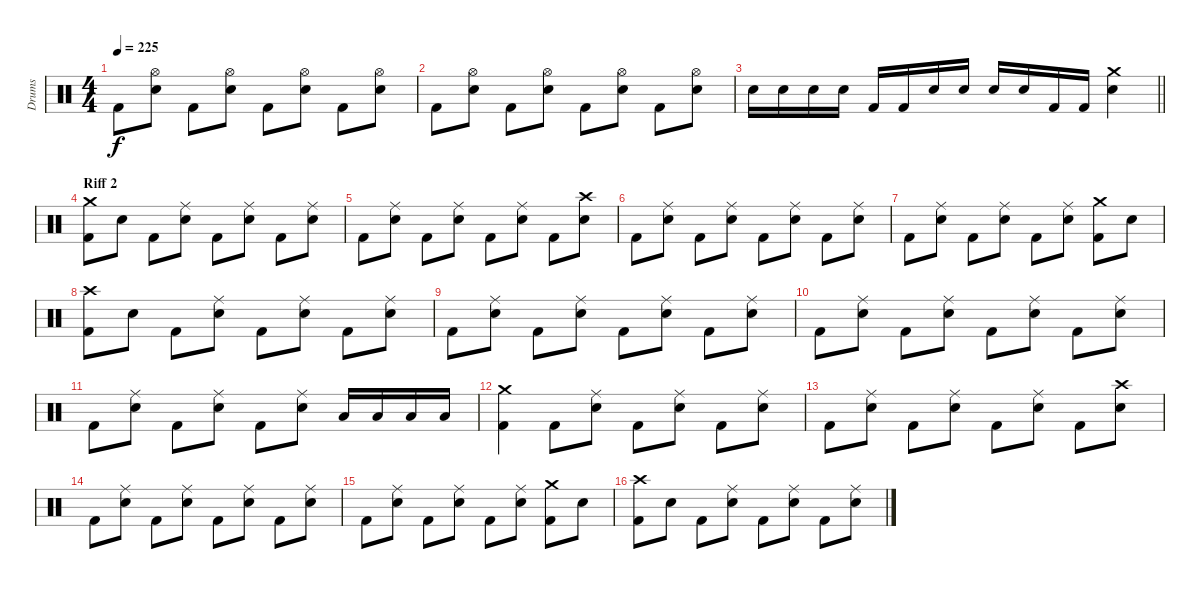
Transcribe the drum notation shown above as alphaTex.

\track ("Drums" "Drums") {instrument percussion}
\staff {score}
\articulation defaults
\ts (4 4)
\tempo 225
\clef neutral
\ks c "Kick (hit) 2".8{dy f}
("Hi-Hat (open)" "Electric Snare (hit)").8 "Kick (hit) 2".8 ("Hi-Hat (open)" "Electric Snare (hit)").8 "Kick (hit) 2".8 ("Hi-Hat (open)" "Electric Snare (hit)").8 "Kick (hit) 2".8 ("Hi-Hat (open)" "Electric Snare (hit)").8 |
"Kick (hit) 2".8 ("Hi-Hat (open)" "Electric Snare (hit)").8 "Kick (hit) 2".8 ("Hi-Hat (open)" "Electric Snare (hit)").8 "Kick (hit) 2".8 ("Hi-Hat (open)" "Electric Snare (hit)").8 "Kick (hit) 2".8 ("Hi-Hat (open)" "Electric Snare (hit)").8 |
\barLineRight lightlight "Electric Snare (hit)".16 "Electric Snare (hit)".16 "Electric Snare (hit)".16 "Electric Snare (hit)".16 "Kick (hit) 2".16 "Kick (hit) 2".16 "Electric Snare (hit)".16 "Electric Snare (hit)".16 "Electric Snare (hit)".16 "Electric Snare (hit)".16 "Kick (hit) 2".16 "Kick (hit) 2".16
("Electric Snare (hit)" "Crash medium (hit)").4 |
\section ("" "Riff 2")
("Crash medium (hit)" "Kick (hit) 2").8 "Electric Snare (hit)".8 "Kick (hit) 2".8 ("Ride (middle)" "Electric Snare (hit)").8 "Kick (hit) 2".8 ("Ride (middle)" "Electric Snare (hit)").8 "Kick (hit) 2".8 ("Ride (middle)" "Electric Snare (hit)").8 |
"Kick (hit) 2".8 ("Ride (middle)" "Electric Snare (hit)").8 "Kick (hit) 2".8 ("Ride (middle)" "Electric Snare (hit)").8 "Kick (hit) 2".8 ("Ride (middle)" "Electric Snare (hit)").8 "Kick (hit) 2".8 ("Crash high (hit)" "Electric Snare (hit)").8 |
"Kick (hit) 2".8 ("Ride (middle)" "Electric Snare (hit)").8 "Kick (hit) 2".8 ("Ride (middle)" "Electric Snare (hit)").8 "Kick (hit) 2".8 ("Ride (middle)" "Electric Snare (hit)").8 "Kick (hit) 2".8 ("Ride (middle)" "Electric Snare (hit)").8 |
"Kick (hit) 2".8 ("Ride (middle)" "Electric Snare (hit)").8 "Kick (hit) 2".8 ("Ride (middle)" "Electric Snare (hit)").8 "Kick (hit) 2".8 ("Ride (middle)" "Electric Snare (hit)").8 ("Crash medium (hit)" "Kick (hit) 2").8 "Electric Snare (hit)".8 |
("Crash high (hit)" "Kick (hit) 2").8 "Electric Snare (hit)".8 "Kick (hit) 2".8 ("Ride (middle)" "Electric Snare (hit)").8 "Kick (hit) 2".8 ("Ride (middle)" "Electric Snare (hit)").8 "Kick (hit) 2".8 ("Ride (middle)" "Electric Snare (hit)").8 |
"Kick (hit) 2".8 ("Ride (middle)" "Electric Snare (hit)").8 "Kick (hit) 2".8 ("Ride (middle)" "Electric Snare (hit)").8 "Kick (hit) 2".8 ("Ride (middle)" "Electric Snare (hit)").8 "Kick (hit) 2".8 ("Ride (middle)" "Electric Snare (hit)").8 |
"Kick (hit) 2".8 ("Ride (middle)" "Electric Snare (hit)").8 "Kick (hit) 2".8 ("Ride (middle)" "Electric Snare (hit)").8 "Kick (hit) 2".8 ("Ride (middle)" "Electric Snare (hit)").8 "Kick (hit) 2".8 ("Ride (middle)" "Electric Snare (hit)").8 |
"Kick (hit) 2".8 ("Ride (middle)" "Electric Snare (hit)").8 "Kick (hit) 2".8 ("Ride (middle)" "Electric Snare (hit)").8 "Kick (hit) 2".8 ("Ride (middle)" "Electric Snare (hit)").8 "Low Tom (hit)".16 "Low Tom (hit)".16 "Low Tom (hit)".16 "Low Tom (hit)".16 |
("Crash medium (hit)" "Kick (hit) 2").4 "Kick (hit) 2".8 ("Ride (middle)" "Electric Snare (hit)").8 "Kick (hit) 2".8 ("Ride (middle)" "Electric Snare (hit)").8 "Kick (hit) 2".8 ("Ride (middle)" "Electric Snare (hit)").8 |
"Kick (hit) 2".8 ("Ride (middle)" "Electric Snare (hit)").8 "Kick (hit) 2".8 ("Ride (middle)" "Electric Snare (hit)").8 "Kick (hit) 2".8 ("Ride (middle)" "Electric Snare (hit)").8 "Kick (hit) 2".8 ("Crash high (hit)" "Electric Snare (hit)").8 |
"Kick (hit) 2".8 ("Ride (middle)" "Electric Snare (hit)").8 "Kick (hit) 2".8 ("Ride (middle)" "Electric Snare (hit)").8 "Kick (hit) 2".8 ("Ride (middle)" "Electric Snare (hit)").8 "Kick (hit) 2".8 ("Ride (middle)" "Electric Snare (hit)").8 |
"Kick (hit) 2".8 ("Ride (middle)" "Electric Snare (hit)").8 "Kick (hit) 2".8 ("Ride (middle)" "Electric Snare (hit)").8 "Kick (hit) 2".8 ("Ride (middle)" "Electric Snare (hit)").8 ("Crash medium (hit)" "Kick (hit) 2").8 "Electric Snare (hit)".8 |
("Crash high (hit)" "Kick (hit) 2").8 "Electric Snare (hit)".8 "Kick (hit) 2".8 ("Ride (middle)" "Electric Snare (hit)").8 "Kick (hit) 2".8 ("Ride (middle)" "Electric Snare (hit)").8 "Kick (hit) 2".8 ("Ride (middle)" "Electric Snare (hit)").8
